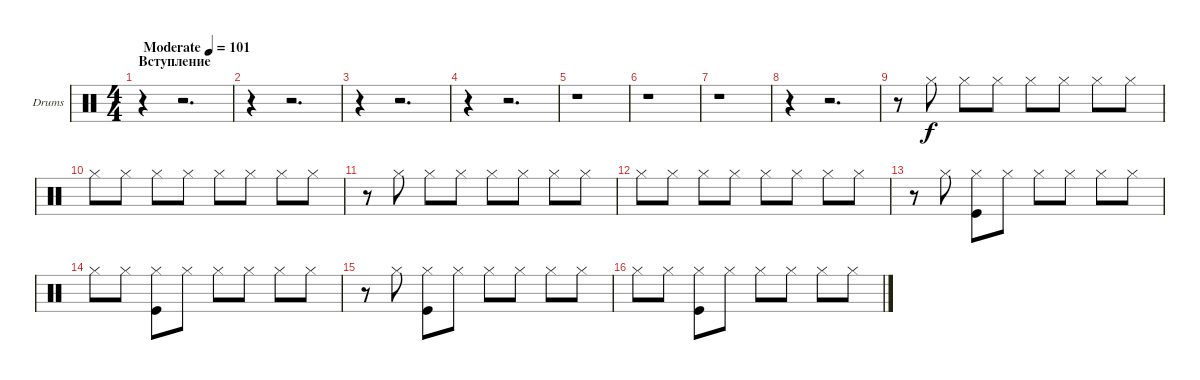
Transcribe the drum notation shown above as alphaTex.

\bracketExtendMode groupsimilarinstruments
\firstSystemTrackNameOrientation horizontal
\otherSystemsTrackNameOrientation horizontal
\track ("Drumkit" "Drums") {instrument percussion}
\staff {score}
\articulation defaults
\ts (4 4)
\beaming (8 2 2 2 2)
\section ("" "Вступление")
\tempo (101 "Moderate")
\clef neutral
\ks c
r.4{dy f} r.2{d} |
r.4 r.2{d} |
r.4 r.2{d} |
r.4 r.2{d} |
r.1 |
r.1 |
r.1 |
r.4 r.2{d} |
r.8 "Hi-Hat (closed)".8 "Hi-Hat (closed)".8 "Hi-Hat (closed)".8 "Hi-Hat (closed)".8 "Hi-Hat (closed)".8 "Hi-Hat (closed)".8 "Hi-Hat (closed)".8 |
"Hi-Hat (closed)".8 "Hi-Hat (closed)".8 "Hi-Hat (closed)".8 "Hi-Hat (closed)".8 "Hi-Hat (closed)".8 "Hi-Hat (closed)".8 "Hi-Hat (closed)".8 "Hi-Hat (closed)".8 |
r.8 "Hi-Hat (closed)".8 "Hi-Hat (closed)".8 "Hi-Hat (closed)".8 "Hi-Hat (closed)".8 "Hi-Hat (closed)".8 "Hi-Hat (closed)".8 "Hi-Hat (closed)".8 |
"Hi-Hat (closed)".8 "Hi-Hat (closed)".8 "Hi-Hat (closed)".8 "Hi-Hat (closed)".8 "Hi-Hat (closed)".8 "Hi-Hat (closed)".8 "Hi-Hat (closed)".8 "Hi-Hat (closed)".8 |
r.8 "Hi-Hat (closed)".8 ("Hi-Hat (closed)" "Kick (hit)").8 "Hi-Hat (closed)".8 "Hi-Hat (closed)".8 "Hi-Hat (closed)".8 "Hi-Hat (closed)".8 "Hi-Hat (closed)".8 |
"Hi-Hat (closed)".8 "Hi-Hat (closed)".8 ("Hi-Hat (closed)" "Kick (hit)").8 "Hi-Hat (closed)".8 "Hi-Hat (closed)".8 "Hi-Hat (closed)".8 "Hi-Hat (closed)".8 "Hi-Hat (closed)".8 |
r.8 "Hi-Hat (closed)".8 ("Hi-Hat (closed)" "Kick (hit)").8 "Hi-Hat (closed)".8 "Hi-Hat (closed)".8 "Hi-Hat (closed)".8 "Hi-Hat (closed)".8 "Hi-Hat (closed)".8 |
"Hi-Hat (closed)".8 "Hi-Hat (closed)".8 ("Hi-Hat (closed)" "Kick (hit)").8 "Hi-Hat (closed)".8 "Hi-Hat (closed)".8 "Hi-Hat (closed)".8 "Hi-Hat (closed)".8 "Hi-Hat (closed)".8
